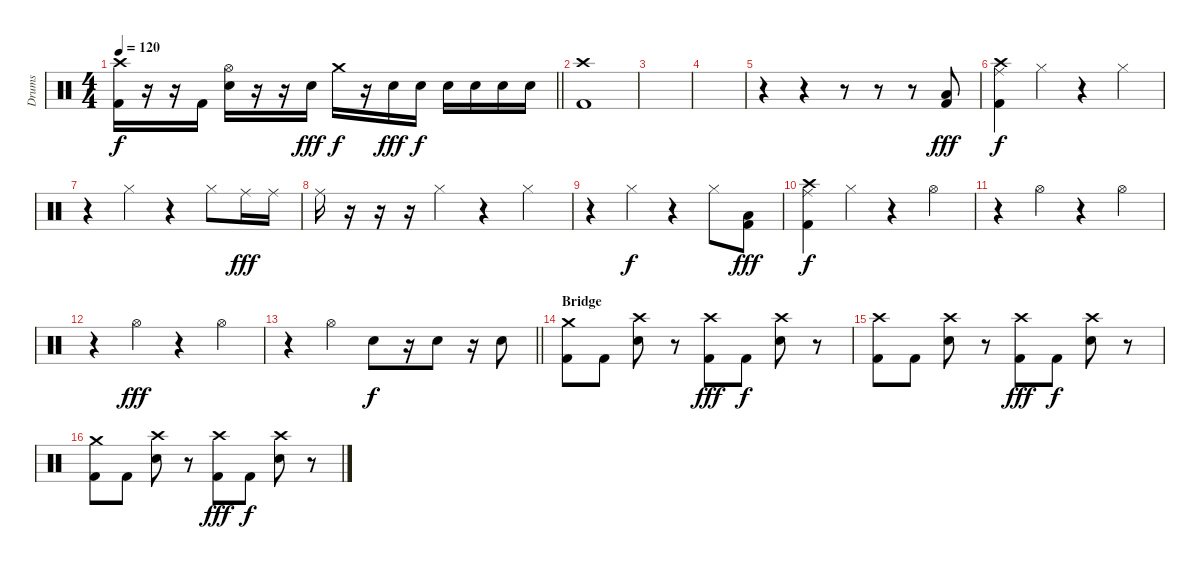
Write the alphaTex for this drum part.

\track ("Drums" "Drums") {instrument percussion}
\staff {score}
\articulation defaults
\ts (4 4)
\tempo 120
\clef neutral
\barLineRight lightlight
\ks c
("Crash high (hit)" "Kick (hit) 2").16{dy f} r.16 r.16 "Kick (hit) 2".16 ("Hi-Hat (open)" "Snare (hit) 2").16 r.16 r.16 "Snare (hit) 2".16{dy fff} "Crash medium (hit)".16{dy f} r.16 "Snare (hit) 2".16{dy fff} "Snare (hit) 2".16{dy f} "Snare (hit) 2".16 "Snare (hit) 2".16 "Snare (hit) 2".16 "Snare (hit) 2".16 |
("Crash high (hit)" "Kick (hit) 2").1 |
|
|
r.4 r.4 r.8 r.8 r.8 ("Low Tom (hit)" "Kick (hit) 2").8{dy fff} |
("Crash high (hit)" "Ride (middle)" "Kick (hit) 2").4{dy f} "Hi-Hat (closed)".4 r.4 "Hi-Hat (closed)".4 |
r.4 "Hi-Hat (closed)".4 r.4 "Hi-Hat (closed)".8 "Ride (middle)".16{dy fff} "Ride (middle)".16 |
"Ride (middle)".16 r.16 r.16 r.16 "Hi-Hat (closed)".4 r.4 "Hi-Hat (closed)".4 |
r.4 "Hi-Hat (closed)".4{dy f} r.4 "Hi-Hat (closed)".8 ("Low Tom (hit)" "Kick (hit) 2").8{dy fff} |
("Crash high (hit)" "Ride (middle)" "Kick (hit) 2").4{dy f} "Hi-Hat (closed)".4 r.4 "Hi-Hat (open)".4 |
r.4 "Hi-Hat (open)".4 r.4 "Hi-Hat (open)".4 |
r.4 "Hi-Hat (open)".4{dy fff} r.4 "Hi-Hat (open)".4 |
\barLineRight lightlight
r.4 "Hi-Hat (open)".4 "Electric Snare (hit)".8{dy f} r.16 "Electric Snare (hit)".8 r.16 "Electric Snare (hit)".8 |
\section ("" "Bridge")
("Crash medium (hit)" "Kick (hit) 2").8 "Kick (hit) 2".8 ("Crash high (hit)" "Electric Snare (hit)").8 r.8 ("Crash high (hit)" "Kick (hit) 2").8{dy fff} "Kick (hit) 2".8{dy f} ("Crash high (hit)" "Electric Snare (hit)").8 r.8 |
("Crash high (hit)" "Kick (hit) 2").8 "Kick (hit) 2".8 ("Crash high (hit)" "Electric Snare (hit)").8 r.8 ("Crash high (hit)" "Kick (hit) 2").8{dy fff} "Kick (hit) 2".8{dy f} ("Crash high (hit)" "Electric Snare (hit)").8 r.8 |
("Crash medium (hit)" "Kick (hit) 2").8 "Kick (hit) 2".8 ("Crash high (hit)" "Electric Snare (hit)").8 r.8 ("Crash high (hit)" "Kick (hit) 2").8{dy fff} "Kick (hit) 2".8{dy f} ("Crash high (hit)" "Electric Snare (hit)").8 r.8
